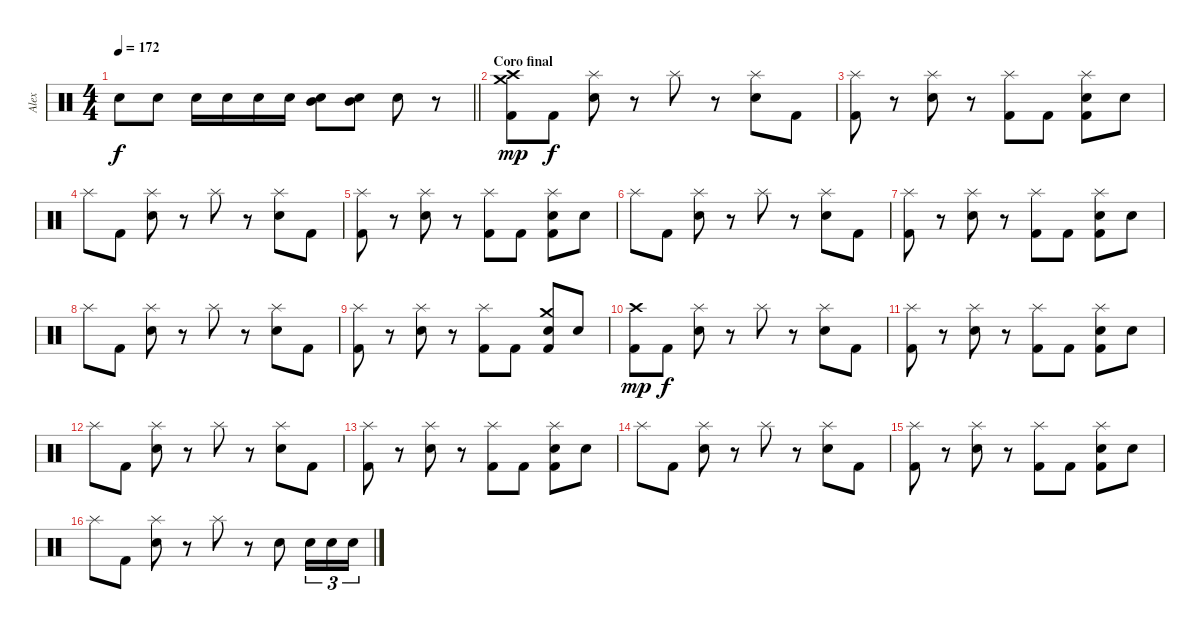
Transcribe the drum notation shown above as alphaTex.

\track ("Alex" "Alex") {instrument percussion}
\staff {score}
\articulation defaults
\ts (4 4)
\tempo 172
\clef neutral
\barLineRight lightlight
\ks c "Electric Snare (hit)".8{dy f} "Electric Snare (hit)".8 "Electric Snare (hit)".16 "Electric Snare (hit)".16 "Electric Snare (hit)".16 "Electric Snare (hit)".16
("Electric Snare (hit)" "Mid Tom (hit)").8 ("Electric Snare (hit)" "Mid Tom (hit)").8 "Electric Snare (hit)".8 r.8 |
\section ("" "Coro final")
("Crash high (hit)" "Crash medium (hit)" "Kick (hit) 2").8{dy mp} "Kick (hit) 2".8{dy f} ("Splash (hit)" "Electric Snare (hit)").8 r.8 "Splash (hit)".8 r.8 ("Splash (hit)" "Electric Snare (hit)").8 "Kick (hit) 2".8 |
("Splash (hit)" "Kick (hit) 2").8 r.8 ("Splash (hit)" "Electric Snare (hit)").8 r.8 ("Splash (hit)" "Kick (hit) 2").8 "Kick (hit) 2".8 ("Splash (hit)" "Electric Snare (hit)" "Kick (hit) 2").8 "Electric Snare (hit)".8 |
"Splash (hit)".8 "Kick (hit) 2".8 ("Splash (hit)" "Electric Snare (hit)").8 r.8 "Splash (hit)".8 r.8 ("Splash (hit)" "Electric Snare (hit)").8 "Kick (hit) 2".8 |
("Splash (hit)" "Kick (hit) 2").8 r.8 ("Splash (hit)" "Electric Snare (hit)").8 r.8 ("Splash (hit)" "Kick (hit) 2").8 "Kick (hit) 2".8 ("Splash (hit)" "Electric Snare (hit)" "Kick (hit) 2").8 "Electric Snare (hit)".8 |
"Splash (hit)".8 "Kick (hit) 2".8 ("Splash (hit)" "Electric Snare (hit)").8 r.8 "Splash (hit)".8 r.8 ("Splash (hit)" "Electric Snare (hit)").8 "Kick (hit) 2".8 |
("Splash (hit)" "Kick (hit) 2").8 r.8 ("Splash (hit)" "Electric Snare (hit)").8 r.8 ("Splash (hit)" "Kick (hit) 2").8 "Kick (hit) 2".8 ("Splash (hit)" "Electric Snare (hit)" "Kick (hit) 2").8 "Electric Snare (hit)".8 |
"Splash (hit)".8 "Kick (hit) 2".8 ("Splash (hit)" "Electric Snare (hit)").8 r.8 "Splash (hit)".8 r.8 ("Splash (hit)" "Electric Snare (hit)").8 "Kick (hit) 2".8 |
("Splash (hit)" "Kick (hit) 2").8 r.8 ("Splash (hit)" "Electric Snare (hit)").8 r.8 ("Splash (hit)" "Kick (hit) 2").8 "Kick (hit) 2".8 ("Crash medium (hit)" "Electric Snare (hit)" "Kick (hit) 2").8 "Electric Snare (hit)".8 |
("Crash high (hit)" "Kick (hit) 2").8{dy mp} "Kick (hit) 2".8{dy f} ("Splash (hit)" "Electric Snare (hit)").8 r.8 "Splash (hit)".8 r.8 ("Splash (hit)" "Electric Snare (hit)").8 "Kick (hit) 2".8 |
("Splash (hit)" "Kick (hit) 2").8 r.8 ("Splash (hit)" "Electric Snare (hit)").8 r.8 ("Splash (hit)" "Kick (hit) 2").8 "Kick (hit) 2".8 ("Splash (hit)" "Electric Snare (hit)" "Kick (hit) 2").8 "Electric Snare (hit)".8 |
"Splash (hit)".8 "Kick (hit) 2".8 ("Splash (hit)" "Electric Snare (hit)").8 r.8 "Splash (hit)".8 r.8 ("Splash (hit)" "Electric Snare (hit)").8 "Kick (hit) 2".8 |
("Splash (hit)" "Kick (hit) 2").8 r.8 ("Splash (hit)" "Electric Snare (hit)").8 r.8 ("Splash (hit)" "Kick (hit) 2").8 "Kick (hit) 2".8 ("Splash (hit)" "Electric Snare (hit)" "Kick (hit) 2").8 "Electric Snare (hit)".8 |
"Splash (hit)".8 "Kick (hit) 2".8 ("Splash (hit)" "Electric Snare (hit)").8 r.8 "Splash (hit)".8 r.8 ("Splash (hit)" "Electric Snare (hit)").8 "Kick (hit) 2".8 |
("Splash (hit)" "Kick (hit) 2").8 r.8 ("Splash (hit)" "Electric Snare (hit)").8 r.8 ("Splash (hit)" "Kick (hit) 2").8 "Kick (hit) 2".8 ("Splash (hit)" "Electric Snare (hit)" "Kick (hit) 2").8 "Electric Snare (hit)".8 |
"Splash (hit)".8 "Kick (hit) 2".8 ("Splash (hit)" "Electric Snare (hit)").8 r.8 "Splash (hit)".8 r.8 "Electric Snare (hit)".8 "Electric Snare (hit)".16{tu (3 2)} "Electric Snare (hit)".16{tu (3 2)} "Electric Snare (hit)".16{tu (3 2)}
